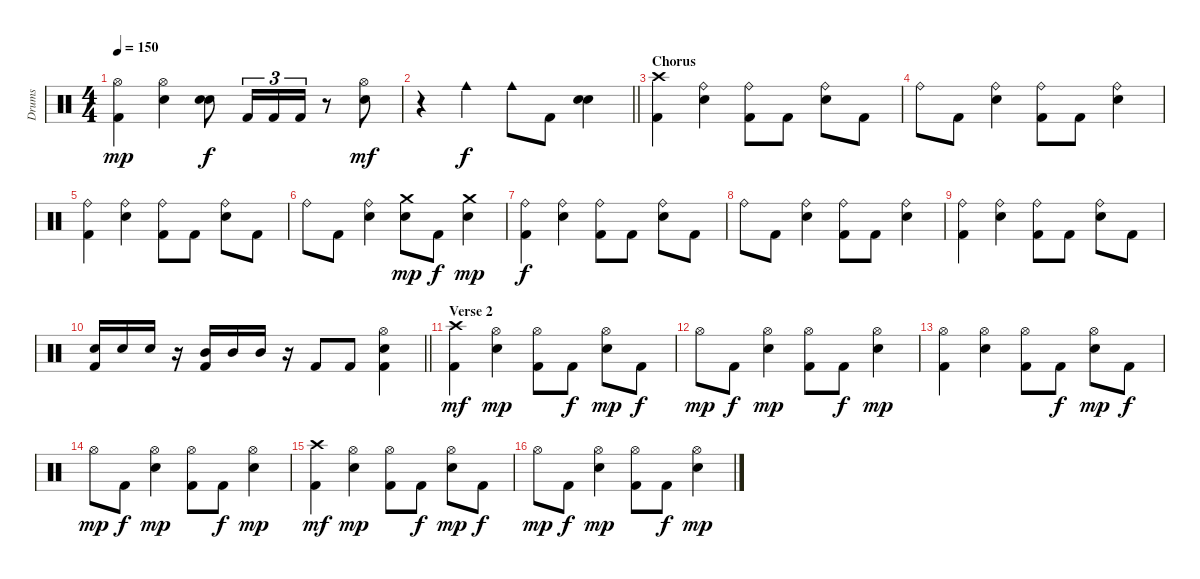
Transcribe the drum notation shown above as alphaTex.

\track ("Drums" "Drums") {instrument percussion}
\staff {score}
\articulation defaults
\ts (4 4)
\tempo 150
\clef neutral
\ks c
("Hi-Hat (open)" "Kick (hit) 2").4{dy mp} ("Hi-Hat (open)" "Snare (hit) 2").4 ("Snare (hit) 2" "Snare (hit) 2").8{dy f} "Kick (hit) 2".16{tu (3 2)} "Kick (hit) 2".16{tu (3 2)} "Kick (hit) 2".16{tu (3 2)} r.8 ("Hi-Hat (open)" "Snare (hit) 2").8{dy mf} |
\barLineRight lightlight
r.4 "Cowbell medium (hit)".4{dy f} "Cowbell medium (hit)".8 "Kick (hit) 2".8 ("Snare (hit) 2" "Snare (hit) 2").4 |
\section ("" "Chorus")
("Crash high (hit)" "Kick (hit) 2").4 ("Ride (bell)" "Snare (hit) 2").4 ("Ride (bell)" "Kick (hit) 2").8 "Kick (hit) 2".8 ("Ride (bell)" "Snare (hit) 2").8 "Kick (hit) 2".8 |
"Ride (bell)".8 "Kick (hit) 2".8 ("Ride (bell)" "Snare (hit) 2").4 ("Ride (bell)" "Kick (hit) 2").8 "Kick (hit) 2".8 ("Ride (bell)" "Snare (hit) 2").4 |
("Ride (bell)" "Kick (hit) 2").4 ("Ride (bell)" "Snare (hit) 2").4 ("Ride (bell)" "Kick (hit) 2").8 "Kick (hit) 2".8 ("Ride (bell)" "Snare (hit) 2").8 "Kick (hit) 2".8 |
"Ride (bell)".8 "Kick (hit) 2".8 ("Ride (bell)" "Snare (hit) 2").4 ("Crash medium (hit)" "Snare (hit) 2").8{dy mp} "Kick (hit) 2".8{dy f} ("Crash medium (hit)" "Snare (hit) 2").4{dy mp} |
("Ride (bell)" "Kick (hit) 2").4{dy f} ("Ride (bell)" "Snare (hit) 2").4 ("Ride (bell)" "Kick (hit) 2").8 "Kick (hit) 2".8 ("Ride (bell)" "Snare (hit) 2").8 "Kick (hit) 2".8 |
"Ride (bell)".8 "Kick (hit) 2".8 ("Ride (bell)" "Snare (hit) 2").4 ("Ride (bell)" "Kick (hit) 2").8 "Kick (hit) 2".8 ("Ride (bell)" "Snare (hit) 2").4 |
("Ride (bell)" "Kick (hit) 2").4 ("Ride (bell)" "Snare (hit) 2").4 ("Ride (bell)" "Kick (hit) 2").8 "Kick (hit) 2".8 ("Ride (bell)" "Snare (hit) 2").8 "Kick (hit) 2".8 |
\barLineRight lightlight
("Snare (hit) 2" "Kick (hit) 2").16 "Snare (hit) 2".16 "Snare (hit) 2".16 r.16 ("Mid Tom (hit)" "Kick (hit) 2").16 "Mid Tom (hit)".16 "Mid Tom (hit)".16 r.16 "Kick (hit) 2".8 "Kick (hit) 2".8 ("Hi-Hat (open)" "Snare (hit) 2" "Kick (hit) 2").4 |
\section ("" "Verse 2")
("Crash high (hit)" "Kick (hit) 2").4{dy mf} ("Hi-Hat (open)" "Snare (hit) 2").4{dy mp} ("Hi-Hat (open)" "Kick (hit) 2").8 "Kick (hit) 2".8{dy f} ("Hi-Hat (open)" "Snare (hit) 2").8{dy mp} "Kick (hit) 2".8{dy f} |
"Hi-Hat (open)".8{dy mp} "Kick (hit) 2".8{dy f} ("Hi-Hat (open)" "Snare (hit) 2").4{dy mp} ("Hi-Hat (open)" "Kick (hit) 2").8 "Kick (hit) 2".8{dy f} ("Hi-Hat (open)" "Snare (hit) 2").4{dy mp} |
("Hi-Hat (open)" "Kick (hit) 2").4 ("Hi-Hat (open)" "Snare (hit) 2").4 ("Hi-Hat (open)" "Kick (hit) 2").8 "Kick (hit) 2".8{dy f} ("Hi-Hat (open)" "Snare (hit) 2").8{dy mp} "Kick (hit) 2".8{dy f} |
"Hi-Hat (open)".8{dy mp} "Kick (hit) 2".8{dy f} ("Hi-Hat (open)" "Snare (hit) 2").4{dy mp} ("Hi-Hat (open)" "Kick (hit) 2").8 "Kick (hit) 2".8{dy f} ("Hi-Hat (open)" "Snare (hit) 2").4{dy mp} |
("Crash high (hit)" "Kick (hit) 2").4{dy mf} ("Hi-Hat (open)" "Snare (hit) 2").4{dy mp} ("Hi-Hat (open)" "Kick (hit) 2").8 "Kick (hit) 2".8{dy f} ("Hi-Hat (open)" "Snare (hit) 2").8{dy mp} "Kick (hit) 2".8{dy f} |
"Hi-Hat (open)".8{dy mp} "Kick (hit) 2".8{dy f} ("Hi-Hat (open)" "Snare (hit) 2").4{dy mp} ("Hi-Hat (open)" "Kick (hit) 2").8 "Kick (hit) 2".8{dy f} ("Hi-Hat (open)" "Snare (hit) 2").4{dy mp}
